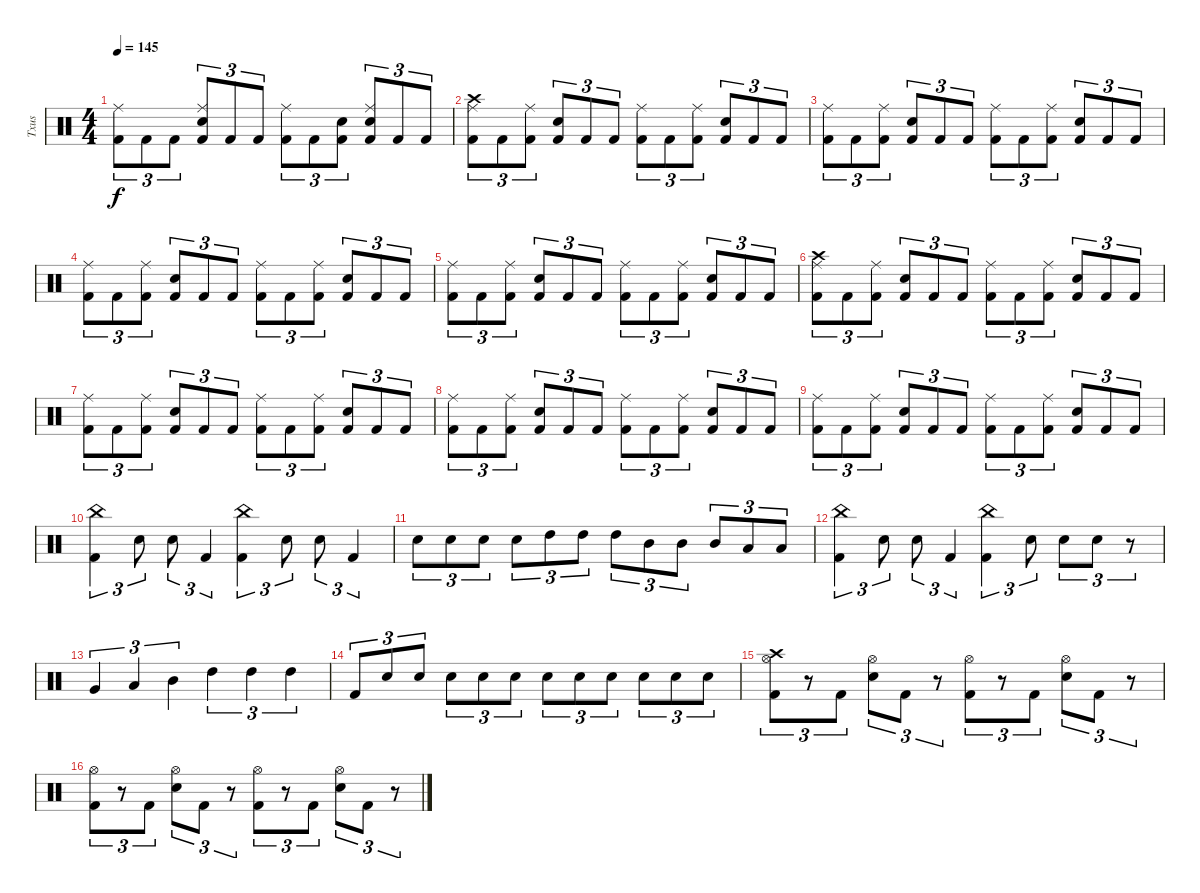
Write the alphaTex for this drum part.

\track ("Txus" "Txus") {instrument percussion}
\staff {score}
\articulation defaults
\ts (4 4)
\tempo 145
\clef neutral
\ks c
("Kick (hit) 2" "Ride (middle)").8{tu (3 2) dy f} "Kick (hit) 2".8{tu (3 2)} "Kick (hit) 2".8{tu (3 2)} ("Kick (hit) 2" "Ride (middle)" "Electric Snare (hit)").8{tu (3 2)} "Kick (hit) 2".8{tu (3 2)} "Kick (hit) 2".8{tu (3 2)} ("Kick (hit) 2" "Ride (middle)").8{tu (3 2)} "Kick (hit) 2".8{tu (3 2)} ("Kick (hit) 2" "Electric Snare (hit)").8{tu (3 2)} ("Kick (hit) 2" "Ride (middle)" "Electric Snare (hit)").8{tu (3 2)} "Kick (hit) 2".8{tu (3 2)} "Kick (hit) 2".8{tu (3 2)} |
("Kick (hit) 2" "Ride (middle)" "Crash high (hit)").8{tu (3 2)} "Kick (hit) 2".8{tu (3 2)} ("Kick (hit) 2" "Ride (middle)").8{tu (3 2)} ("Kick (hit) 2" "Electric Snare (hit)").8{tu (3 2)} "Kick (hit) 2".8{tu (3 2)} "Kick (hit) 2".8{tu (3 2)} ("Kick (hit) 2" "Ride (middle)").8{tu (3 2)} "Kick (hit) 2".8{tu (3 2)} ("Kick (hit) 2" "Ride (middle)").8{tu (3 2)} ("Kick (hit) 2" "Electric Snare (hit)").8{tu (3 2)} "Kick (hit) 2".8{tu (3 2)} "Kick (hit) 2".8{tu (3 2)} |
("Kick (hit) 2" "Ride (middle)").8{tu (3 2)} "Kick (hit) 2".8{tu (3 2)} ("Kick (hit) 2" "Ride (middle)").8{tu (3 2)} ("Kick (hit) 2" "Electric Snare (hit)").8{tu (3 2)} "Kick (hit) 2".8{tu (3 2)} "Kick (hit) 2".8{tu (3 2)} ("Kick (hit) 2" "Ride (middle)").8{tu (3 2)} "Kick (hit) 2".8{tu (3 2)} ("Kick (hit) 2" "Ride (middle)").8{tu (3 2)} ("Kick (hit) 2" "Electric Snare (hit)").8{tu (3 2)} "Kick (hit) 2".8{tu (3 2)} "Kick (hit) 2".8{tu (3 2)} |
("Kick (hit) 2" "Ride (middle)").8{tu (3 2)} "Kick (hit) 2".8{tu (3 2)} ("Kick (hit) 2" "Ride (middle)").8{tu (3 2)} ("Kick (hit) 2" "Electric Snare (hit)").8{tu (3 2)} "Kick (hit) 2".8{tu (3 2)} "Kick (hit) 2".8{tu (3 2)} ("Kick (hit) 2" "Ride (middle)").8{tu (3 2)} "Kick (hit) 2".8{tu (3 2)} ("Kick (hit) 2" "Ride (middle)").8{tu (3 2)} ("Kick (hit) 2" "Electric Snare (hit)").8{tu (3 2)} "Kick (hit) 2".8{tu (3 2)} "Kick (hit) 2".8{tu (3 2)} |
("Kick (hit) 2" "Ride (middle)").8{tu (3 2)} "Kick (hit) 2".8{tu (3 2)} ("Kick (hit) 2" "Ride (middle)").8{tu (3 2)} ("Kick (hit) 2" "Electric Snare (hit)").8{tu (3 2)} "Kick (hit) 2".8{tu (3 2)} "Kick (hit) 2".8{tu (3 2)} ("Kick (hit) 2" "Ride (middle)").8{tu (3 2)} "Kick (hit) 2".8{tu (3 2)} ("Kick (hit) 2" "Ride (middle)").8{tu (3 2)} ("Kick (hit) 2" "Electric Snare (hit)").8{tu (3 2)} "Kick (hit) 2".8{tu (3 2)} "Kick (hit) 2".8{tu (3 2)} |
("Kick (hit) 2" "Ride (middle)" "Crash high (hit)").8{tu (3 2)} "Kick (hit) 2".8{tu (3 2)} ("Kick (hit) 2" "Ride (middle)").8{tu (3 2)} ("Kick (hit) 2" "Electric Snare (hit)").8{tu (3 2)} "Kick (hit) 2".8{tu (3 2)} "Kick (hit) 2".8{tu (3 2)} ("Kick (hit) 2" "Ride (middle)").8{tu (3 2)} "Kick (hit) 2".8{tu (3 2)} ("Kick (hit) 2" "Ride (middle)").8{tu (3 2)} ("Kick (hit) 2" "Electric Snare (hit)").8{tu (3 2)} "Kick (hit) 2".8{tu (3 2)} "Kick (hit) 2".8{tu (3 2)} |
("Kick (hit) 2" "Ride (middle)").8{tu (3 2)} "Kick (hit) 2".8{tu (3 2)} ("Kick (hit) 2" "Ride (middle)").8{tu (3 2)} ("Kick (hit) 2" "Electric Snare (hit)").8{tu (3 2)} "Kick (hit) 2".8{tu (3 2)} "Kick (hit) 2".8{tu (3 2)} ("Kick (hit) 2" "Ride (middle)").8{tu (3 2)} "Kick (hit) 2".8{tu (3 2)} ("Kick (hit) 2" "Ride (middle)").8{tu (3 2)} ("Kick (hit) 2" "Electric Snare (hit)").8{tu (3 2)} "Kick (hit) 2".8{tu (3 2)} "Kick (hit) 2".8{tu (3 2)} |
("Kick (hit) 2" "Ride (middle)").8{tu (3 2)} "Kick (hit) 2".8{tu (3 2)} ("Kick (hit) 2" "Ride (middle)").8{tu (3 2)} ("Kick (hit) 2" "Electric Snare (hit)").8{tu (3 2)} "Kick (hit) 2".8{tu (3 2)} "Kick (hit) 2".8{tu (3 2)} ("Kick (hit) 2" "Ride (middle)").8{tu (3 2)} "Kick (hit) 2".8{tu (3 2)} ("Kick (hit) 2" "Ride (middle)").8{tu (3 2)} ("Kick (hit) 2" "Electric Snare (hit)").8{tu (3 2)} "Kick (hit) 2".8{tu (3 2)} "Kick (hit) 2".8{tu (3 2)} |
("Kick (hit) 2" "Ride (middle)").8{tu (3 2)} "Kick (hit) 2".8{tu (3 2)} ("Kick (hit) 2" "Ride (middle)").8{tu (3 2)} ("Kick (hit) 2" "Electric Snare (hit)").8{tu (3 2)} "Kick (hit) 2".8{tu (3 2)} "Kick (hit) 2".8{tu (3 2)} ("Kick (hit) 2" "Ride (middle)").8{tu (3 2)} "Kick (hit) 2".8{tu (3 2)} ("Kick (hit) 2" "Ride (middle)").8{tu (3 2)} ("Kick (hit) 2" "Electric Snare (hit)").8{tu (3 2)} "Kick (hit) 2".8{tu (3 2)} "Kick (hit) 2".8{tu (3 2)} |
("Kick (hit) 2" "China (hit)").4{tu (3 2)} "Electric Snare (hit)".8{tu (3 2)} "Electric Snare (hit)".8{tu (3 2)} "Kick (hit) 2".4{tu (3 2)} ("Kick (hit) 2" "China (hit)").4{tu (3 2)} "Electric Snare (hit)".8{tu (3 2)} "Electric Snare (hit)".8{tu (3 2)} "Kick (hit) 2".4{tu (3 2)} |
"Electric Snare (hit)".8{tu (3 2)} "Electric Snare (hit)".8{tu (3 2)} "Electric Snare (hit)".8{tu (3 2)} "Electric Snare (hit)".8{tu (3 2)} "High Tom (hit)".8{tu (3 2)} "High Tom (hit)".8{tu (3 2)} "High Tom (hit)".8{tu (3 2)} "Mid Tom (hit)".8{tu (3 2)} "Mid Tom (hit)".8{tu (3 2)} "Mid Tom (hit)".8{tu (3 2)} "Low Tom (hit)".8{tu (3 2)} "Low Tom (hit)".8{tu (3 2)} |
("Kick (hit) 2" "China (hit)").4{tu (3 2)} "Electric Snare (hit)".8{tu (3 2)} "Electric Snare (hit)".8{tu (3 2)} "Kick (hit) 2".4{tu (3 2)} ("Kick (hit) 2" "China (hit)").4{tu (3 2)} "Electric Snare (hit)".8{tu (3 2)} "Electric Snare (hit)".8{tu (3 2)} "Electric Snare (hit)".8{tu (3 2)} r.8{tu (3 2)} |
"Very Low Tom (hit)".4{tu (3 2)} "Low Tom (hit)".4{tu (3 2)} "Mid Tom (hit)".4{tu (3 2)} "High Tom (hit)".4{tu (3 2)} "High Tom (hit)".4{tu (3 2)} "High Tom (hit)".4{tu (3 2)} |
"Kick (hit) 2".8{tu (3 2) volume 5} "Electric Snare (hit)".8{tu (3 2) volume 13} "Electric Snare (hit)".8{tu (3 2)} "Electric Snare (hit)".8{tu (3 2)} "Electric Snare (hit)".8{tu (3 2)} "Electric Snare (hit)".8{tu (3 2)} "Electric Snare (hit)".8{tu (3 2)} "Electric Snare (hit)".8{tu (3 2)} "Electric Snare (hit)".8{tu (3 2)} "Electric Snare (hit)".8{tu (3 2)} "Electric Snare (hit)".8{tu (3 2)} "Electric Snare (hit)".8{tu (3 2)} |
("Kick (hit) 2" "Hi-Hat (open)" "Crash high (hit)").8{tu (3 2)} r.8{tu (3 2)} "Kick (hit) 2".8{tu (3 2)} ("Hi-Hat (open)" "Electric Snare (hit)").8{tu (3 2)} "Kick (hit) 2".8{tu (3 2)} r.8{tu (3 2)} ("Kick (hit) 2" "Hi-Hat (open)").8{tu (3 2)} r.8{tu (3 2)} "Kick (hit) 2".8{tu (3 2)} ("Hi-Hat (open)" "Electric Snare (hit)").8{tu (3 2)} "Kick (hit) 2".8{tu (3 2)} r.8{tu (3 2)} |
("Kick (hit) 2" "Hi-Hat (open)").8{tu (3 2)} r.8{tu (3 2)} "Kick (hit) 2".8{tu (3 2)} ("Hi-Hat (open)" "Electric Snare (hit)").8{tu (3 2)} "Kick (hit) 2".8{tu (3 2)} r.8{tu (3 2)} ("Kick (hit) 2" "Hi-Hat (open)").8{tu (3 2)} r.8{tu (3 2)} "Kick (hit) 2".8{tu (3 2)} ("Hi-Hat (open)" "Electric Snare (hit)").8{tu (3 2)} "Kick (hit) 2".8{tu (3 2)} r.8{tu (3 2)}
